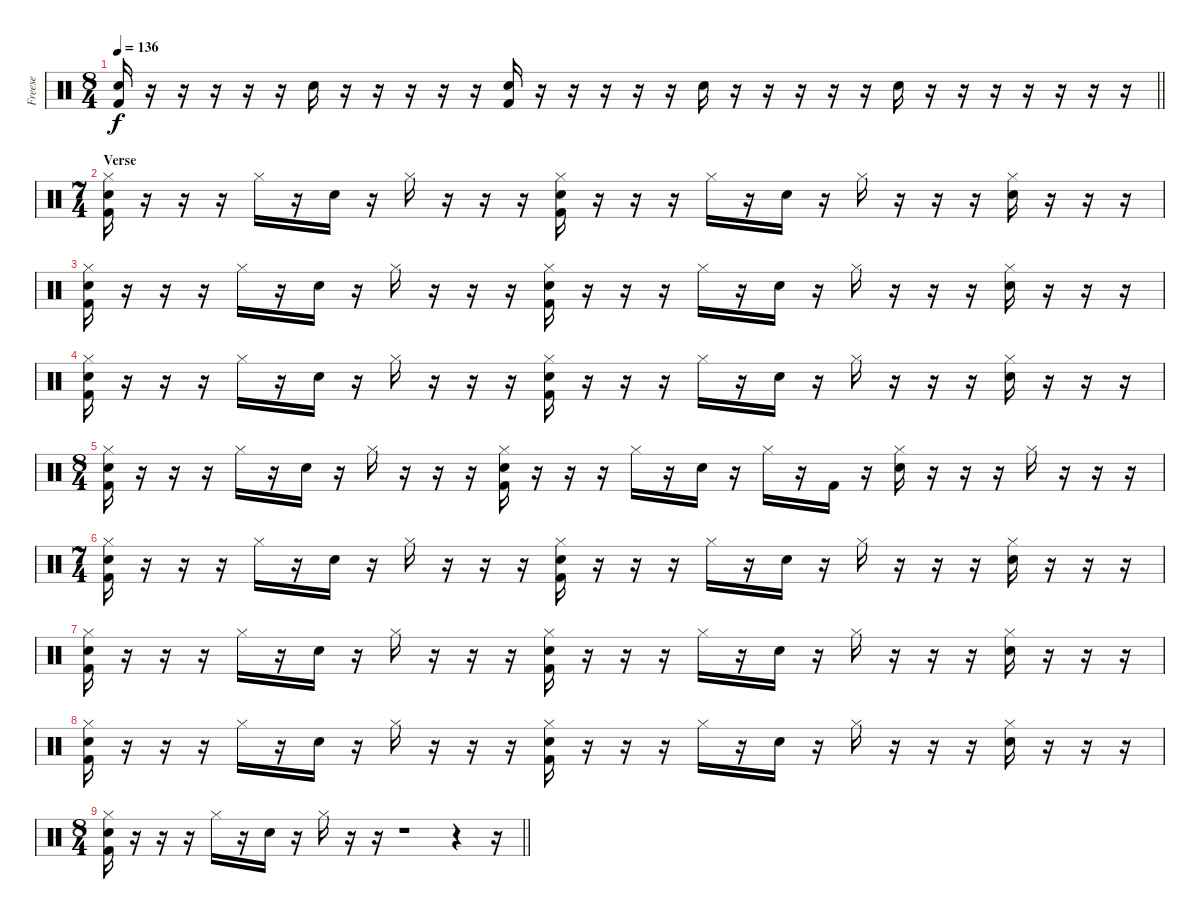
\track ("Freese" "Freese") {instrument percussion}
\staff {score}
\articulation defaults
\ts (8 4)
\tempo 136
\clef neutral
\barLineRight lightlight
\ks c
("Snare (hit) 2" "Kick (hit) 2").16{dy f} r.16 r.16 r.16 r.16 r.16 "Snare (hit) 2".16 r.16 r.16 r.16 r.16 r.16 ("Snare (hit) 2" "Kick (hit) 2").16 r.16 r.16 r.16 r.16 r.16 "Snare (hit) 2".16 r.16 r.16 r.16 r.16 r.16 "Snare (hit) 2".16 r.16 r.16 r.16 r.16 r.16 r.16 r.16 |
\ts (7 4)
\section ("" "Verse")
("Hi-Hat (closed)" "Snare (hit) 2" "Kick (hit) 2").16 r.16 r.16 r.16 "Hi-Hat (closed)".16 r.16 "Snare (hit) 2".16 r.16 "Hi-Hat (closed)".16 r.16 r.16 r.16 ("Hi-Hat (closed)" "Snare (hit) 2" "Kick (hit) 2").16 r.16 r.16 r.16 "Hi-Hat (closed)".16 r.16 "Snare (hit) 2".16 r.16 "Hi-Hat (closed)".16 r.16 r.16 r.16 ("Hi-Hat (closed)" "Snare (hit) 2").16 r.16 r.16 r.16 |
("Hi-Hat (closed)" "Snare (hit) 2" "Kick (hit) 2").16 r.16 r.16 r.16 "Hi-Hat (closed)".16 r.16 "Snare (hit) 2".16 r.16 "Hi-Hat (closed)".16 r.16 r.16 r.16 ("Hi-Hat (closed)" "Snare (hit) 2" "Kick (hit) 2").16 r.16 r.16 r.16 "Hi-Hat (closed)".16 r.16 "Snare (hit) 2".16 r.16 "Hi-Hat (closed)".16 r.16 r.16 r.16 ("Hi-Hat (closed)" "Snare (hit) 2").16 r.16 r.16 r.16 |
("Hi-Hat (closed)" "Snare (hit) 2" "Kick (hit) 2").16 r.16 r.16 r.16 "Hi-Hat (closed)".16 r.16 "Snare (hit) 2".16 r.16 "Hi-Hat (closed)".16 r.16 r.16 r.16 ("Hi-Hat (closed)" "Snare (hit) 2" "Kick (hit) 2").16 r.16 r.16 r.16 "Hi-Hat (closed)".16 r.16 "Snare (hit) 2".16 r.16 "Hi-Hat (closed)".16 r.16 r.16 r.16 ("Hi-Hat (closed)" "Snare (hit) 2").16 r.16 r.16 r.16 |
\ts (8 4)
("Hi-Hat (closed)" "Snare (hit) 2" "Kick (hit) 2").16 r.16 r.16 r.16 "Hi-Hat (closed)".16 r.16 "Snare (hit) 2".16 r.16 "Hi-Hat (closed)".16 r.16 r.16 r.16 ("Hi-Hat (closed)" "Snare (hit) 2" "Kick (hit) 2").16 r.16 r.16 r.16 "Hi-Hat (closed)".16 r.16 "Snare (hit) 2".16 r.16 "Hi-Hat (closed)".16 r.16 "Kick (hit) 2".16 r.16 ("Hi-Hat (closed)" "Snare (hit) 2").16 r.16 r.16 r.16 "Hi-Hat (closed)".16 r.16 r.16 r.16 |
\ts (7 4)
("Hi-Hat (closed)" "Snare (hit) 2" "Kick (hit) 2").16 r.16 r.16 r.16 "Hi-Hat (closed)".16 r.16 "Snare (hit) 2".16 r.16 "Hi-Hat (closed)".16 r.16 r.16 r.16 ("Hi-Hat (closed)" "Snare (hit) 2" "Kick (hit) 2").16 r.16 r.16 r.16 "Hi-Hat (closed)".16 r.16 "Snare (hit) 2".16 r.16 "Hi-Hat (closed)".16 r.16 r.16 r.16 ("Hi-Hat (closed)" "Snare (hit) 2").16 r.16 r.16 r.16 |
("Hi-Hat (closed)" "Snare (hit) 2" "Kick (hit) 2").16 r.16 r.16 r.16 "Hi-Hat (closed)".16 r.16 "Snare (hit) 2".16 r.16 "Hi-Hat (closed)".16 r.16 r.16 r.16 ("Hi-Hat (closed)" "Snare (hit) 2" "Kick (hit) 2").16 r.16 r.16 r.16 "Hi-Hat (closed)".16 r.16 "Snare (hit) 2".16 r.16 "Hi-Hat (closed)".16 r.16 r.16 r.16 ("Hi-Hat (closed)" "Snare (hit) 2").16 r.16 r.16 r.16 |
("Hi-Hat (closed)" "Snare (hit) 2" "Kick (hit) 2").16 r.16 r.16 r.16 "Hi-Hat (closed)".16 r.16 "Snare (hit) 2".16 r.16 "Hi-Hat (closed)".16 r.16 r.16 r.16 ("Hi-Hat (closed)" "Snare (hit) 2" "Kick (hit) 2").16 r.16 r.16 r.16 "Hi-Hat (closed)".16 r.16 "Snare (hit) 2".16 r.16 "Hi-Hat (closed)".16 r.16 r.16 r.16 ("Hi-Hat (closed)" "Snare (hit) 2").16 r.16 r.16 r.16 |
\ts (8 4)
\barLineRight lightlight
("Hi-Hat (closed)" "Snare (hit) 2" "Kick (hit) 2").16 r.16 r.16 r.16 "Hi-Hat (closed)".16 r.16 "Snare (hit) 2".16 r.16 "Hi-Hat (closed)".16 r.16 r.16 r.1 r.4 r.16
